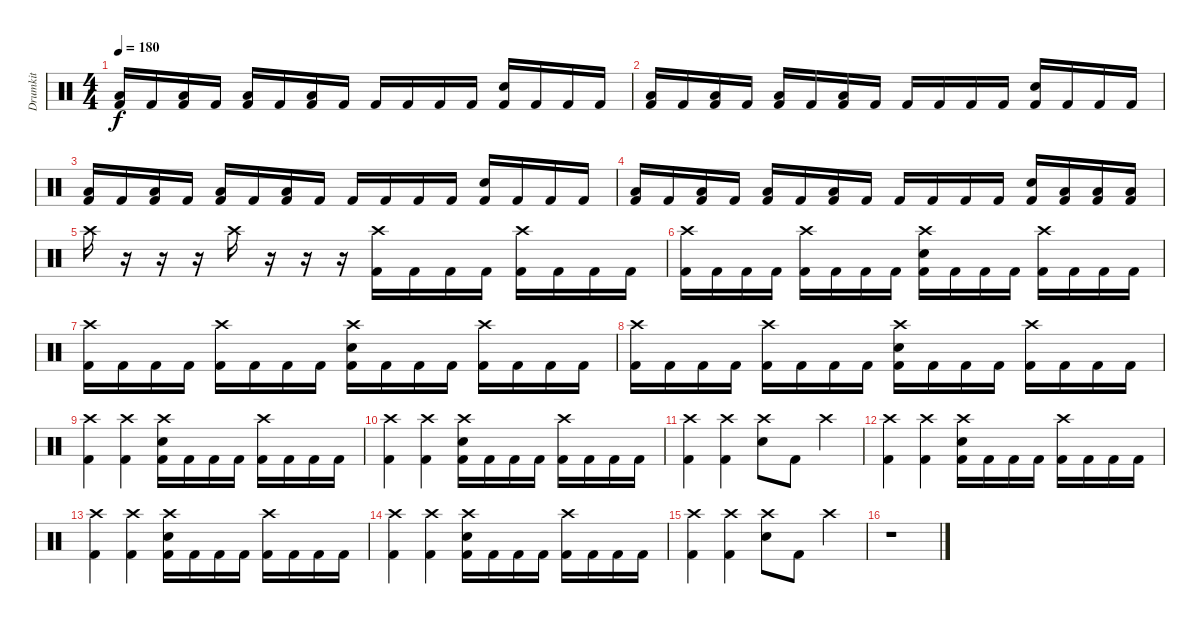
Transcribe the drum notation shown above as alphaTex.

\track ("Drumkit" "Drumkit") {instrument percussion}
\staff {score}
\articulation defaults
\ts (4 4)
\tempo 180
\clef neutral
\ks c
("Low Tom (hit)" "Kick (hit) 2").16{dy f} "Kick (hit) 2".16 ("Low Tom (hit)" "Kick (hit) 2").16 "Kick (hit) 2".16 ("Low Tom (hit)" "Kick (hit) 2").16 "Kick (hit) 2".16 ("Low Tom (hit)" "Kick (hit) 2").16 "Kick (hit) 2".16 "Kick (hit) 2".16 "Kick (hit) 2".16 "Kick (hit) 2".16 "Kick (hit) 2".16 ("Snare (hit) 2" "Kick (hit) 2").16 "Kick (hit) 2".16 "Kick (hit) 2".16 "Kick (hit) 2".16 |
("Low Tom (hit)" "Kick (hit) 2").16 "Kick (hit) 2".16 ("Low Tom (hit)" "Kick (hit) 2").16 "Kick (hit) 2".16 ("Low Tom (hit)" "Kick (hit) 2").16 "Kick (hit) 2".16 ("Low Tom (hit)" "Kick (hit) 2").16 "Kick (hit) 2".16 "Kick (hit) 2".16 "Kick (hit) 2".16 "Kick (hit) 2".16 "Kick (hit) 2".16 ("Snare (hit) 2" "Kick (hit) 2").16 "Kick (hit) 2".16 "Kick (hit) 2".16 "Kick (hit) 2".16 |
("Low Tom (hit)" "Kick (hit) 2").16 "Kick (hit) 2".16 ("Low Tom (hit)" "Kick (hit) 2").16 "Kick (hit) 2".16 ("Low Tom (hit)" "Kick (hit) 2").16 "Kick (hit) 2".16 ("Low Tom (hit)" "Kick (hit) 2").16 "Kick (hit) 2".16 "Kick (hit) 2".16 "Kick (hit) 2".16 "Kick (hit) 2".16 "Kick (hit) 2".16 ("Snare (hit) 2" "Kick (hit) 2").16 "Kick (hit) 2".16 "Kick (hit) 2".16 "Kick (hit) 2".16 |
("Low Tom (hit)" "Kick (hit) 2").16 "Kick (hit) 2".16 ("Low Tom (hit)" "Kick (hit) 2").16 "Kick (hit) 2".16 ("Low Tom (hit)" "Kick (hit) 2").16 "Kick (hit) 2".16 ("Low Tom (hit)" "Kick (hit) 2").16 "Kick (hit) 2".16 "Kick (hit) 2".16 "Kick (hit) 2".16 "Kick (hit) 2".16 "Kick (hit) 2".16 ("Snare (hit) 2" "Kick (hit) 2").16 ("Low Tom (hit)" "Kick (hit) 2").16 ("Low Tom (hit)" "Kick (hit) 2").16 ("Low Tom (hit)" "Kick (hit) 2").16 |
"Crash high (hit)".16 r.16 r.16 r.16 "Crash high (hit)".16 r.16 r.16 r.16 ("Crash high (hit)" "Kick (hit) 2").16 "Kick (hit) 2".16 "Kick (hit) 2".16 "Kick (hit) 2".16 ("Crash high (hit)" "Kick (hit) 2").16 "Kick (hit) 2".16 "Kick (hit) 2".16 "Kick (hit) 2".16 |
("Crash high (hit)" "Kick (hit) 2").16 "Kick (hit) 2".16 "Kick (hit) 2".16 "Kick (hit) 2".16 ("Crash high (hit)" "Kick (hit) 2").16 "Kick (hit) 2".16 "Kick (hit) 2".16 "Kick (hit) 2".16 ("Crash high (hit)" "Snare (hit) 2" "Kick (hit) 2").16 "Kick (hit) 2".16 "Kick (hit) 2".16 "Kick (hit) 2".16 ("Crash high (hit)" "Kick (hit) 2").16 "Kick (hit) 2".16 "Kick (hit) 2".16 "Kick (hit) 2".16 |
("Crash high (hit)" "Kick (hit) 2").16 "Kick (hit) 2".16 "Kick (hit) 2".16 "Kick (hit) 2".16 ("Crash high (hit)" "Kick (hit) 2").16 "Kick (hit) 2".16 "Kick (hit) 2".16 "Kick (hit) 2".16 ("Crash high (hit)" "Snare (hit) 2" "Kick (hit) 2").16 "Kick (hit) 2".16 "Kick (hit) 2".16 "Kick (hit) 2".16 ("Crash high (hit)" "Kick (hit) 2").16 "Kick (hit) 2".16 "Kick (hit) 2".16 "Kick (hit) 2".16 |
("Crash high (hit)" "Kick (hit) 2").16 "Kick (hit) 2".16 "Kick (hit) 2".16 "Kick (hit) 2".16 ("Crash high (hit)" "Kick (hit) 2").16 "Kick (hit) 2".16 "Kick (hit) 2".16 "Kick (hit) 2".16 ("Crash high (hit)" "Snare (hit) 2" "Kick (hit) 2").16 "Kick (hit) 2".16 "Kick (hit) 2".16 "Kick (hit) 2".16 ("Crash high (hit)" "Kick (hit) 2").16 "Kick (hit) 2".16 "Kick (hit) 2".16 "Kick (hit) 2".16 |
("Crash high (hit)" "Kick (hit) 2").4 ("Crash high (hit)" "Kick (hit) 2").4 ("Crash high (hit)" "Snare (hit) 2" "Kick (hit) 2").16 "Kick (hit) 2".16 "Kick (hit) 2".16 "Kick (hit) 2".16 ("Crash high (hit)" "Kick (hit) 2").16 "Kick (hit) 2".16 "Kick (hit) 2".16 "Kick (hit) 2".16 |
("Crash high (hit)" "Kick (hit) 2").4 ("Crash high (hit)" "Kick (hit) 2").4 ("Crash high (hit)" "Snare (hit) 2" "Kick (hit) 2").16 "Kick (hit) 2".16 "Kick (hit) 2".16 "Kick (hit) 2".16 ("Crash high (hit)" "Kick (hit) 2").16 "Kick (hit) 2".16 "Kick (hit) 2".16 "Kick (hit) 2".16 |
("Crash high (hit)" "Kick (hit) 2").4 ("Crash high (hit)" "Kick (hit) 2").4 ("Crash high (hit)" "Snare (hit) 2").8 "Kick (hit) 2".8 "Crash high (hit)".4 |
("Crash high (hit)" "Kick (hit) 2").4 ("Crash high (hit)" "Kick (hit) 2").4 ("Crash high (hit)" "Snare (hit) 2" "Kick (hit) 2").16 "Kick (hit) 2".16 "Kick (hit) 2".16 "Kick (hit) 2".16 ("Crash high (hit)" "Kick (hit) 2").16 "Kick (hit) 2".16 "Kick (hit) 2".16 "Kick (hit) 2".16 |
("Crash high (hit)" "Kick (hit) 2").4 ("Crash high (hit)" "Kick (hit) 2").4 ("Crash high (hit)" "Snare (hit) 2" "Kick (hit) 2").16 "Kick (hit) 2".16 "Kick (hit) 2".16 "Kick (hit) 2".16 ("Crash high (hit)" "Kick (hit) 2").16 "Kick (hit) 2".16 "Kick (hit) 2".16 "Kick (hit) 2".16 |
("Crash high (hit)" "Kick (hit) 2").4 ("Crash high (hit)" "Kick (hit) 2").4 ("Crash high (hit)" "Snare (hit) 2" "Kick (hit) 2").16 "Kick (hit) 2".16 "Kick (hit) 2".16 "Kick (hit) 2".16 ("Crash high (hit)" "Kick (hit) 2").16 "Kick (hit) 2".16 "Kick (hit) 2".16 "Kick (hit) 2".16 |
("Crash high (hit)" "Kick (hit) 2").4 ("Crash high (hit)" "Kick (hit) 2").4 ("Crash high (hit)" "Snare (hit) 2").8 "Kick (hit) 2".8 "Crash high (hit)".4 |
r.1
